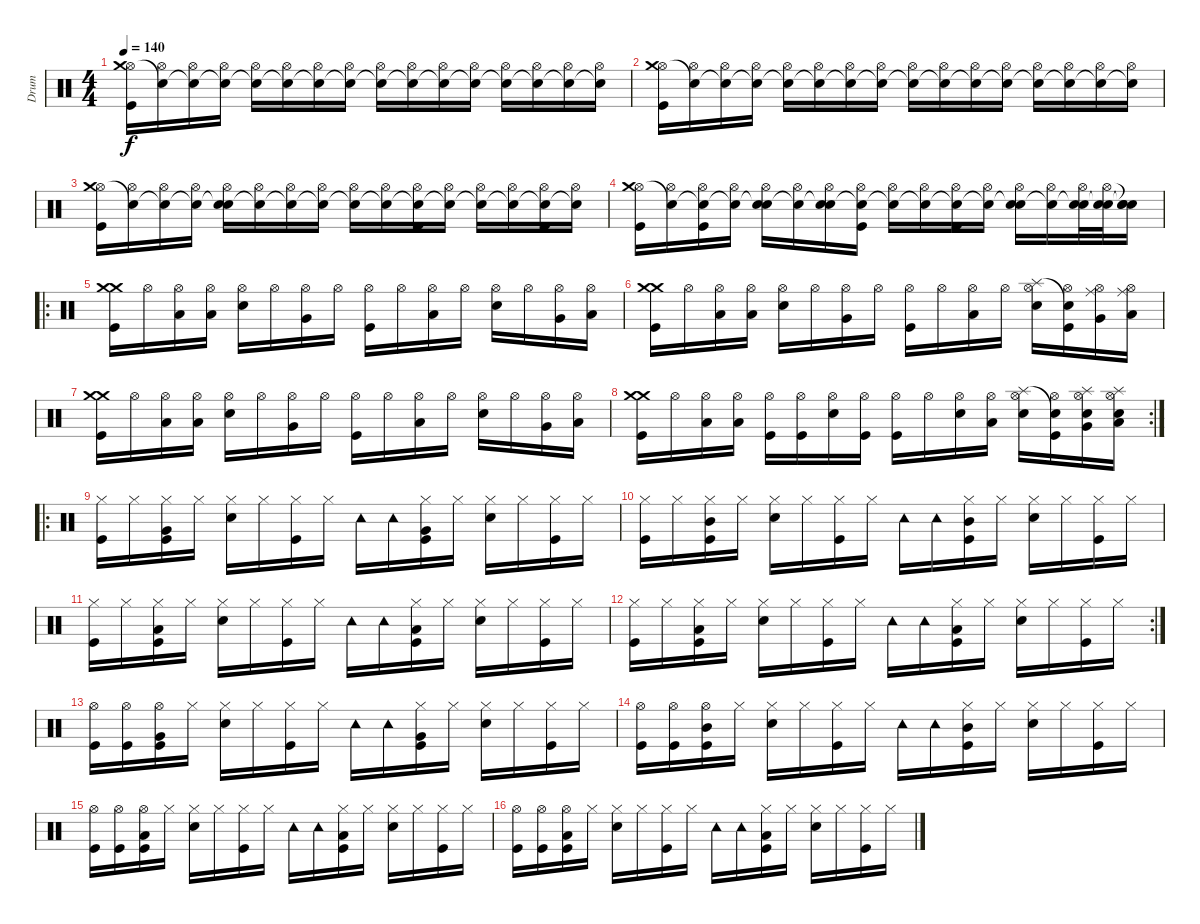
\track ("Drum" "Drum") {instrument percussion}
\staff {score}
\articulation defaults
\ts (4 4)
\tempo 140
\clef neutral
\ks c
("Hi-Hat (open)" "Crash medium (hit)" "Kick (hit)").16{dy f} ("Hi-Hat (open)" "Snare (hit)"{t}).16 ("Hi-Hat (open)" "Snare (hit)"{t}).16 ("Hi-Hat (open)" "Snare (hit)"{t}).16 ("Hi-Hat (open)" "Snare (hit)"{t}).16 ("Hi-Hat (open)" "Snare (hit)"{t}).16 ("Hi-Hat (open)" "Snare (hit)"{t}).16 ("Hi-Hat (open)" "Snare (hit)"{t}).16 ("Hi-Hat (open)" "Snare (hit)"{t}).16 ("Hi-Hat (open)" "Snare (hit)"{t}).16 ("Hi-Hat (open)" "Snare (hit)"{t}).16 ("Hi-Hat (open)" "Snare (hit)"{t}).16 ("Hi-Hat (open)" "Snare (hit)"{t}).16 ("Hi-Hat (open)" "Snare (hit)"{t}).16 ("Hi-Hat (open)" "Snare (hit)"{t}).16 ("Hi-Hat (open)" "Snare (hit)"{t}).16 |
("Hi-Hat (open)" "Crash medium (hit)" "Kick (hit)").16 ("Hi-Hat (open)" "Snare (hit)"{t}).16 ("Hi-Hat (open)" "Snare (hit)"{t}).16 ("Hi-Hat (open)" "Snare (hit)"{t}).16 ("Hi-Hat (open)" "Snare (hit)"{t}).16 ("Hi-Hat (open)" "Snare (hit)"{t}).16 ("Hi-Hat (open)" "Snare (hit)"{t}).16 ("Hi-Hat (open)" "Snare (hit)"{t}).16 ("Hi-Hat (open)" "Snare (hit)"{t}).16 ("Hi-Hat (open)" "Snare (hit)"{t}).16 ("Hi-Hat (open)" "Snare (hit)"{t}).16 ("Hi-Hat (open)" "Snare (hit)"{t}).16 ("Hi-Hat (open)" "Snare (hit)"{t}).16 ("Hi-Hat (open)" "Snare (hit)"{t}).16 ("Hi-Hat (open)" "Snare (hit)"{t}).16 ("Hi-Hat (open)" "Snare (hit)"{t}).16 |
("Hi-Hat (open)" "Crash medium (hit)" "Kick (hit)").16 ("Hi-Hat (open)" "Snare (hit)"{t}).16 ("Hi-Hat (open)" "Snare (hit)"{t}).16 ("Hi-Hat (open)" "Snare (hit)"{t}).16 ("Hi-Hat (open)" "Snare (hit)"{t} "Snare (hit) 2").16 ("Hi-Hat (open)" "Snare (hit)"{t}).16 ("Hi-Hat (open)" "Snare (hit)"{t}).16 ("Hi-Hat (open)" "Snare (hit)"{t}).16 ("Hi-Hat (open)" "Snare (hit)"{t}).16 ("Hi-Hat (open)" "Snare (hit)"{t}).16 ("Hi-Hat (open)" "Snare (hit)"{t} "Kick (hit)").16 ("Hi-Hat (open)" "Snare (hit)"{t}).16 ("Hi-Hat (open)" "Snare (hit)"{t}).16 ("Hi-Hat (open)" "Snare (hit)"{t}).16 ("Hi-Hat (open)" "Snare (hit)"{t} "Kick (hit)").16 ("Hi-Hat (open)" "Snare (hit)"{t}).16 |
("Hi-Hat (open)" "Crash medium (hit)" "Kick (hit)").16 ("Hi-Hat (open)" "Snare (hit)"{t}).16 ("Hi-Hat (open)" "Snare (hit)"{t} "Kick (hit)").16 ("Hi-Hat (open)" "Snare (hit)"{t}).16 ("Hi-Hat (open)" "Snare (hit)"{t} "Snare (hit) 2").16 ("Hi-Hat (open)" "Snare (hit)"{t}).16 ("Hi-Hat (open)" "Snare (hit)"{t} "Snare (hit) 2").16 ("Hi-Hat (open)" "Snare (hit)"{t} "Kick (hit)").16 ("Hi-Hat (open)" "Snare (hit)"{t}).16 ("Hi-Hat (open)" "Snare (hit)"{t}).16 ("Hi-Hat (open)" "Snare (hit)"{t} "Kick (hit)").16 ("Hi-Hat (open)" "Snare (hit)"{t}).16 ("Hi-Hat (open)" "Snare (hit)"{t} "Snare (hit) 2").16 ("Hi-Hat (open)" "Snare (hit)"{t}).16 ("Hi-Hat (open)" "Snare (hit)"{t} "Snare (hit) 2").32 ("Hi-Hat (open)" "Snare (hit)"{t} "Snare (hit) 2").32 ("Snare (hit)"{t} "Snare (hit)"{t} "Snare (hit) 2").16 |
\ro
("Crash medium (hit)" "Crash medium (hit)" "Kick (hit)").16 "Hi-Hat (open)".16 ("Hi-Hat (open)" "Low Tom (hit)").16 ("Hi-Hat (open)" "Low Tom (hit)").16 ("Hi-Hat (open)" "Snare (hit) 2").16 "Hi-Hat (open)".16 ("Hi-Hat (open)" "Very Low Tom (hit)").16 "Hi-Hat (open)".16 ("Hi-Hat (open)" "Kick (hit)").16 "Hi-Hat (open)".16 ("Hi-Hat (open)" "Low Tom (hit)").16 "Hi-Hat (open)".16 ("Hi-Hat (open)" "Snare (hit) 2").16 "Hi-Hat (open)".16 ("Hi-Hat (open)" "Very Low Tom (hit)").16 ("Hi-Hat (open)" "Low Floor Tom (hit)").16 |
("Crash medium (hit)" "Crash medium (hit)" "Kick (hit)").16 "Hi-Hat (open)".16 ("Hi-Hat (open)" "Low Tom (hit)").16 ("Hi-Hat (open)" "Low Tom (hit)").16 ("Hi-Hat (open)" "Snare (hit) 2").16 "Hi-Hat (open)".16 ("Hi-Hat (open)" "Very Low Tom (hit)").16 "Hi-Hat (open)".16 ("Hi-Hat (open)" "Kick (hit)").16 "Hi-Hat (open)".16 ("Hi-Hat (open)" "Low Tom (hit)").16 "Hi-Hat (open)".16 ("Hi-Hat (open)" "Splash (hit)" "Snare (hit) 2").16 ("Hi-Hat (open)" "Snare (hit)"{t} "Kick (hit)").16 ("Hi-Hat (open)" "Ride (middle)" "Very Low Tom (hit)").16 ("Hi-Hat (open)" "Ride (middle)" "Low Floor Tom (hit)").16 |
("Crash medium (hit)" "Crash medium (hit)" "Kick (hit)").16 "Hi-Hat (open)".16 ("Hi-Hat (open)" "Low Tom (hit)").16 ("Hi-Hat (open)" "Low Tom (hit)").16 ("Hi-Hat (open)" "Snare (hit) 2").16 "Hi-Hat (open)".16 ("Hi-Hat (open)" "Very Low Tom (hit)").16 "Hi-Hat (open)".16 ("Hi-Hat (open)" "Kick (hit)").16 "Hi-Hat (open)".16 ("Hi-Hat (open)" "Low Tom (hit)").16 "Hi-Hat (open)".16 ("Hi-Hat (open)" "Snare (hit) 2").16 "Hi-Hat (open)".16 ("Hi-Hat (open)" "Very Low Tom (hit)").16 ("Hi-Hat (open)" "Low Floor Tom (hit)").16 |
\rc 2
("Crash medium (hit)" "Crash medium (hit)" "Kick (hit)").16 "Hi-Hat (open)".16 ("Hi-Hat (open)" "Low Tom (hit)").16 ("Hi-Hat (open)" "Low Tom (hit)").16 ("Hi-Hat (open)" "Kick (hit)").16 ("Hi-Hat (open)" "Kick (hit)").16 ("Hi-Hat (open)" "Snare (hit) 2").16 ("Hi-Hat (open)" "Kick (hit)").16 ("Hi-Hat (open)" "Kick (hit)").16 "Hi-Hat (open)".16 ("Hi-Hat (open)" "Snare (hit) 2").16 ("Hi-Hat (open)" "Low Tom (hit)").16 ("Hi-Hat (open)" "Splash (hit)" "Snare (hit) 2").16 ("Hi-Hat (open)" "Snare (hit)"{t} "Kick (hit)").16 ("Hi-Hat (open)" "Splash (hit)" "Very Low Tom (hit)" "Snare (hit) 2").16 ("Hi-Hat (open)" "Splash (hit)" "Low Floor Tom (hit)" "Snare (hit) 2").16 |
\ro
("Hi-Hat (closed)" "Kick (hit)").16 "Hi-Hat (closed)".16 ("Hi-Hat (closed)" "Very Low Tom (hit)" "Kick (hit)").16 "Hi-Hat (closed)".16 ("Hi-Hat (closed)" "Snare (hit) 2").16 "Hi-Hat (closed)".16 ("Hi-Hat (closed)" "Kick (hit)").16 "Hi-Hat (closed)".16 "Tambourine (hit)".16 "Tambourine (hit)".16 ("Hi-Hat (closed)" "Very Low Tom (hit)" "Kick (hit)").16 "Hi-Hat (closed)".16 ("Hi-Hat (closed)" "Snare (hit) 2").16 "Hi-Hat (closed)".16 ("Hi-Hat (closed)" "Kick (hit)").16 "Hi-Hat (closed)".16 |
("Hi-Hat (closed)" "Kick (hit)").16 "Hi-Hat (closed)".16 ("Hi-Hat (closed)" "Mid Tom (hit)" "Kick (hit)").16 "Hi-Hat (closed)".16 ("Hi-Hat (closed)" "Snare (hit) 2").16 "Hi-Hat (closed)".16 ("Hi-Hat (closed)" "Kick (hit)").16 "Hi-Hat (closed)".16 "Tambourine (hit)".16 "Tambourine (hit)".16 ("Hi-Hat (closed)" "Mid Tom (hit)" "Kick (hit)").16 "Hi-Hat (closed)".16 ("Hi-Hat (closed)" "Snare (hit) 2").16 "Hi-Hat (closed)".16 ("Hi-Hat (closed)" "Kick (hit)").16 "Hi-Hat (closed)".16 |
("Hi-Hat (closed)" "Kick (hit)").16 "Hi-Hat (closed)".16 ("Hi-Hat (closed)" "Low Tom (hit)" "Kick (hit)").16 "Hi-Hat (closed)".16 ("Hi-Hat (closed)" "Snare (hit) 2").16 "Hi-Hat (closed)".16 ("Hi-Hat (closed)" "Kick (hit)").16 "Hi-Hat (closed)".16 "Tambourine (hit)".16 "Tambourine (hit)".16 ("Hi-Hat (closed)" "Low Tom (hit)" "Kick (hit)").16 "Hi-Hat (closed)".16 ("Hi-Hat (closed)" "Snare (hit) 2").16 "Hi-Hat (closed)".16 ("Hi-Hat (closed)" "Kick (hit)").16 "Hi-Hat (closed)".16 |
\rc 2
("Hi-Hat (closed)" "Kick (hit)").16 "Hi-Hat (closed)".16 ("Hi-Hat (closed)" "Low Floor Tom (hit)" "Kick (hit)").16 "Hi-Hat (closed)".16 ("Hi-Hat (closed)" "Snare (hit) 2").16 "Hi-Hat (closed)".16 ("Hi-Hat (closed)" "Kick (hit)").16 "Hi-Hat (closed)".16 "Tambourine (hit)".16 "Tambourine (hit)".16 ("Hi-Hat (closed)" "Low Floor Tom (hit)" "Kick (hit)").16 "Hi-Hat (closed)".16 ("Hi-Hat (closed)" "Snare (hit) 2").16 "Hi-Hat (closed)".16 ("Hi-Hat (closed)" "Kick (hit)").16 "Hi-Hat (closed)".16 |
("Hi-Hat (open)" "Kick (hit)").16 ("Hi-Hat (open)" "Kick (hit)").16 ("Hi-Hat (open)" "Very Low Tom (hit)" "Kick (hit)").16 "Hi-Hat (closed)".16 ("Hi-Hat (closed)" "Snare (hit) 2").16 "Hi-Hat (closed)".16 ("Hi-Hat (closed)" "Kick (hit)").16 "Hi-Hat (closed)".16 "Tambourine (hit)".16 "Tambourine (hit)".16 ("Hi-Hat (closed)" "Very Low Tom (hit)" "Kick (hit)").16 "Hi-Hat (closed)".16 ("Hi-Hat (closed)" "Snare (hit) 2").16 "Hi-Hat (closed)".16 ("Hi-Hat (closed)" "Kick (hit)").16 "Hi-Hat (closed)".16 |
("Hi-Hat (open)" "Kick (hit)").16 ("Hi-Hat (open)" "Kick (hit)").16 ("Hi-Hat (open)" "Mid Tom (hit)" "Kick (hit)").16 "Hi-Hat (closed)".16 ("Hi-Hat (closed)" "Snare (hit) 2").16 "Hi-Hat (closed)".16 ("Hi-Hat (closed)" "Kick (hit)").16 "Hi-Hat (closed)".16 "Tambourine (hit)".16 "Tambourine (hit)".16 ("Hi-Hat (closed)" "Mid Tom (hit)" "Kick (hit)").16 "Hi-Hat (closed)".16 ("Hi-Hat (closed)" "Snare (hit) 2").16 "Hi-Hat (closed)".16 ("Hi-Hat (closed)" "Kick (hit)").16 "Hi-Hat (closed)".16 |
("Hi-Hat (open)" "Kick (hit)").16 ("Hi-Hat (open)" "Kick (hit)").16 ("Hi-Hat (open)" "Low Tom (hit)" "Kick (hit)").16 "Hi-Hat (closed)".16 ("Hi-Hat (closed)" "Snare (hit) 2").16 "Hi-Hat (closed)".16 ("Hi-Hat (closed)" "Kick (hit)").16 "Hi-Hat (closed)".16 "Tambourine (hit)".16 "Tambourine (hit)".16 ("Hi-Hat (closed)" "Low Tom (hit)" "Kick (hit)").16 "Hi-Hat (closed)".16 ("Hi-Hat (closed)" "Snare (hit) 2").16 "Hi-Hat (closed)".16 ("Hi-Hat (closed)" "Kick (hit)").16 "Hi-Hat (closed)".16 |
("Hi-Hat (open)" "Kick (hit)").16 ("Hi-Hat (open)" "Kick (hit)").16 ("Hi-Hat (open)" "Low Floor Tom (hit)" "Kick (hit)").16 "Hi-Hat (closed)".16 ("Hi-Hat (closed)" "Snare (hit) 2").16 "Hi-Hat (closed)".16 ("Hi-Hat (closed)" "Kick (hit)").16 "Hi-Hat (closed)".16 "Tambourine (hit)".16 "Tambourine (hit)".16 ("Hi-Hat (closed)" "Low Floor Tom (hit)" "Kick (hit)").16 "Hi-Hat (closed)".16 ("Hi-Hat (closed)" "Snare (hit) 2").16 "Hi-Hat (closed)".16 ("Hi-Hat (closed)" "Kick (hit)").16 "Hi-Hat (closed)".16
